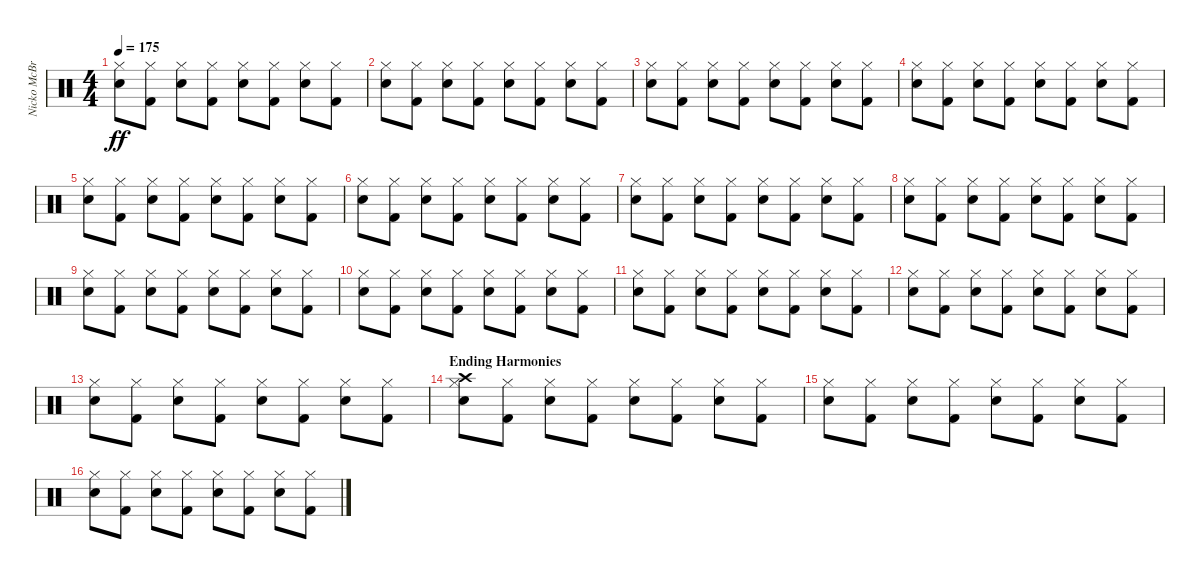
\track ("Nicko McBrain" "Nicko McBr") {instrument percussion}
\staff {score}
\articulation defaults
\ts (4 4)
\tempo 175
\clef neutral
\ks c
("Snare (hit) 2" "Hi-Hat (closed)").8{dy ff} ("Kick (hit) 2" "Hi-Hat (closed)").8 ("Snare (hit) 2" "Hi-Hat (closed)").8 ("Kick (hit) 2" "Hi-Hat (closed)").8 ("Snare (hit) 2" "Hi-Hat (closed)").8 ("Kick (hit) 2" "Hi-Hat (closed)").8 ("Snare (hit) 2" "Hi-Hat (closed)").8 ("Kick (hit) 2" "Hi-Hat (closed)").8 |
("Snare (hit) 2" "Hi-Hat (closed)").8 ("Kick (hit) 2" "Hi-Hat (closed)").8 ("Snare (hit) 2" "Hi-Hat (closed)").8 ("Kick (hit) 2" "Hi-Hat (closed)").8 ("Snare (hit) 2" "Hi-Hat (closed)").8 ("Kick (hit) 2" "Hi-Hat (closed)").8 ("Snare (hit) 2" "Hi-Hat (closed)").8 ("Kick (hit) 2" "Hi-Hat (closed)").8 |
("Snare (hit) 2" "Hi-Hat (closed)").8 ("Kick (hit) 2" "Hi-Hat (closed)").8 ("Snare (hit) 2" "Hi-Hat (closed)").8 ("Kick (hit) 2" "Hi-Hat (closed)").8 ("Snare (hit) 2" "Hi-Hat (closed)").8 ("Kick (hit) 2" "Hi-Hat (closed)").8 ("Snare (hit) 2" "Hi-Hat (closed)").8 ("Kick (hit) 2" "Hi-Hat (closed)").8 |
("Snare (hit) 2" "Hi-Hat (closed)").8 ("Kick (hit) 2" "Hi-Hat (closed)").8 ("Snare (hit) 2" "Hi-Hat (closed)").8 ("Kick (hit) 2" "Hi-Hat (closed)").8 ("Snare (hit) 2" "Hi-Hat (closed)").8 ("Kick (hit) 2" "Hi-Hat (closed)").8 ("Snare (hit) 2" "Hi-Hat (closed)").8 ("Kick (hit) 2" "Hi-Hat (closed)").8 |
("Snare (hit) 2" "Hi-Hat (closed)").8 ("Kick (hit) 2" "Hi-Hat (closed)").8 ("Snare (hit) 2" "Hi-Hat (closed)").8 ("Kick (hit) 2" "Hi-Hat (closed)").8 ("Snare (hit) 2" "Hi-Hat (closed)").8 ("Kick (hit) 2" "Hi-Hat (closed)").8 ("Snare (hit) 2" "Hi-Hat (closed)").8 ("Kick (hit) 2" "Hi-Hat (closed)").8 |
("Snare (hit) 2" "Hi-Hat (closed)").8 ("Kick (hit) 2" "Hi-Hat (closed)").8 ("Snare (hit) 2" "Hi-Hat (closed)").8 ("Kick (hit) 2" "Hi-Hat (closed)").8 ("Snare (hit) 2" "Hi-Hat (closed)").8 ("Kick (hit) 2" "Hi-Hat (closed)").8 ("Snare (hit) 2" "Hi-Hat (closed)").8 ("Kick (hit) 2" "Hi-Hat (closed)").8 |
("Snare (hit) 2" "Hi-Hat (closed)").8 ("Kick (hit) 2" "Hi-Hat (closed)").8 ("Snare (hit) 2" "Hi-Hat (closed)").8 ("Kick (hit) 2" "Hi-Hat (closed)").8 ("Snare (hit) 2" "Hi-Hat (closed)").8 ("Kick (hit) 2" "Hi-Hat (closed)").8 ("Snare (hit) 2" "Hi-Hat (closed)").8 ("Kick (hit) 2" "Hi-Hat (closed)").8 |
("Snare (hit) 2" "Hi-Hat (closed)").8 ("Kick (hit) 2" "Hi-Hat (closed)").8 ("Snare (hit) 2" "Hi-Hat (closed)").8 ("Kick (hit) 2" "Hi-Hat (closed)").8 ("Snare (hit) 2" "Hi-Hat (closed)").8 ("Kick (hit) 2" "Hi-Hat (closed)").8 ("Snare (hit) 2" "Hi-Hat (closed)").8 ("Kick (hit) 2" "Hi-Hat (closed)").8 |
("Snare (hit) 2" "Hi-Hat (closed)").8 ("Kick (hit) 2" "Hi-Hat (closed)").8 ("Snare (hit) 2" "Hi-Hat (closed)").8 ("Kick (hit) 2" "Hi-Hat (closed)").8 ("Snare (hit) 2" "Hi-Hat (closed)").8 ("Kick (hit) 2" "Hi-Hat (closed)").8 ("Snare (hit) 2" "Hi-Hat (closed)").8 ("Kick (hit) 2" "Hi-Hat (closed)").8 |
("Snare (hit) 2" "Hi-Hat (closed)").8 ("Kick (hit) 2" "Hi-Hat (closed)").8 ("Snare (hit) 2" "Hi-Hat (closed)").8 ("Kick (hit) 2" "Hi-Hat (closed)").8 ("Snare (hit) 2" "Hi-Hat (closed)").8 ("Kick (hit) 2" "Hi-Hat (closed)").8 ("Snare (hit) 2" "Hi-Hat (closed)").8 ("Kick (hit) 2" "Hi-Hat (closed)").8 |
("Snare (hit) 2" "Hi-Hat (closed)").8 ("Kick (hit) 2" "Hi-Hat (closed)").8 ("Snare (hit) 2" "Hi-Hat (closed)").8 ("Kick (hit) 2" "Hi-Hat (closed)").8 ("Snare (hit) 2" "Hi-Hat (closed)").8 ("Kick (hit) 2" "Hi-Hat (closed)").8 ("Snare (hit) 2" "Hi-Hat (closed)").8 ("Kick (hit) 2" "Hi-Hat (closed)").8 |
("Snare (hit) 2" "Hi-Hat (closed)").8 ("Kick (hit) 2" "Hi-Hat (closed)").8 ("Snare (hit) 2" "Hi-Hat (closed)").8 ("Kick (hit) 2" "Hi-Hat (closed)").8 ("Snare (hit) 2" "Hi-Hat (closed)").8 ("Kick (hit) 2" "Hi-Hat (closed)").8 ("Snare (hit) 2" "Hi-Hat (closed)").8 ("Kick (hit) 2" "Hi-Hat (closed)").8 |
("Snare (hit) 2" "Hi-Hat (closed)").8 ("Kick (hit) 2" "Hi-Hat (closed)").8 ("Snare (hit) 2" "Hi-Hat (closed)").8 ("Kick (hit) 2" "Hi-Hat (closed)").8 ("Snare (hit) 2" "Hi-Hat (closed)").8 ("Kick (hit) 2" "Hi-Hat (closed)").8 ("Snare (hit) 2" "Hi-Hat (closed)").8 ("Kick (hit) 2" "Hi-Hat (closed)").8 |
\section ("" "Ending Harmonies")
("Snare (hit) 2" "Hi-Hat (closed)" "Crash high (hit)").8 ("Kick (hit) 2" "Hi-Hat (closed)").8 ("Snare (hit) 2" "Hi-Hat (closed)").8 ("Kick (hit) 2" "Hi-Hat (closed)").8 ("Snare (hit) 2" "Hi-Hat (closed)").8 ("Kick (hit) 2" "Hi-Hat (closed)").8 ("Snare (hit) 2" "Hi-Hat (closed)").8 ("Kick (hit) 2" "Hi-Hat (closed)").8 |
("Snare (hit) 2" "Hi-Hat (closed)").8 ("Kick (hit) 2" "Hi-Hat (closed)").8 ("Snare (hit) 2" "Hi-Hat (closed)").8 ("Kick (hit) 2" "Hi-Hat (closed)").8 ("Snare (hit) 2" "Hi-Hat (closed)").8 ("Kick (hit) 2" "Hi-Hat (closed)").8 ("Snare (hit) 2" "Hi-Hat (closed)").8 ("Kick (hit) 2" "Hi-Hat (closed)").8 |
("Snare (hit) 2" "Hi-Hat (closed)").8 ("Kick (hit) 2" "Hi-Hat (closed)").8 ("Snare (hit) 2" "Hi-Hat (closed)").8 ("Kick (hit) 2" "Hi-Hat (closed)").8 ("Snare (hit) 2" "Hi-Hat (closed)").8 ("Kick (hit) 2" "Hi-Hat (closed)").8 ("Snare (hit) 2" "Hi-Hat (closed)").8 ("Kick (hit) 2" "Hi-Hat (closed)").8
